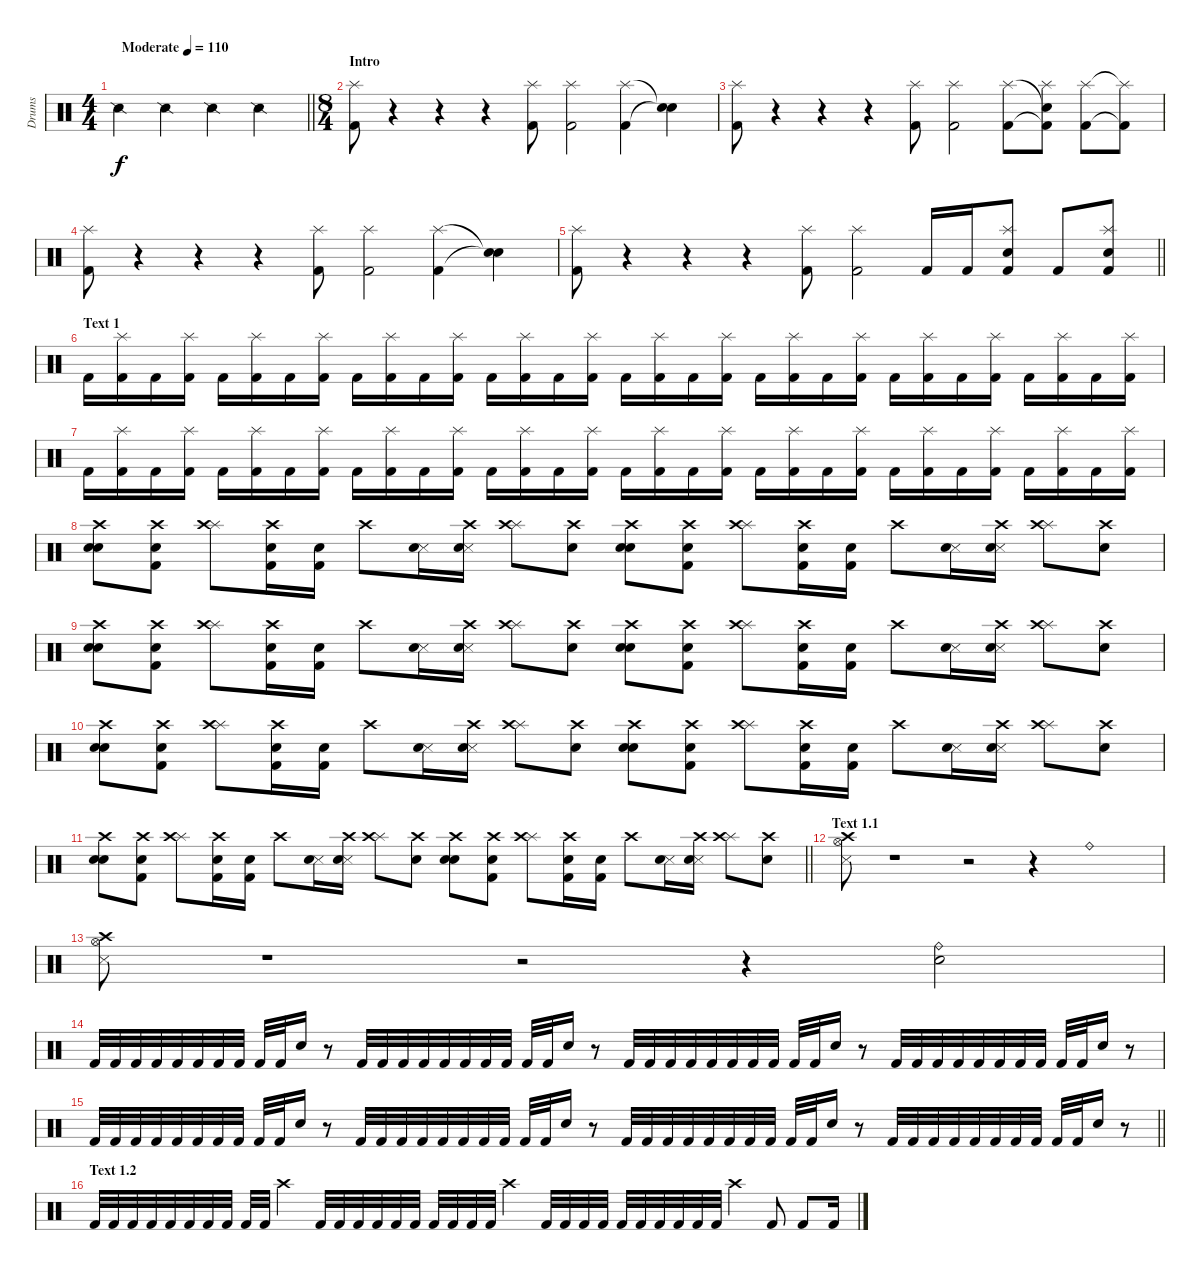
\track ("Drums" "Drums") {instrument percussion}
\staff {score}
\articulation defaults
\ts (4 4)
\tempo (110 "Moderate")
\clef neutral
\barLineRight lightlight
\ks c "Snare (side stick) 2".4{dy f} "Snare (side stick) 2".4 "Snare (side stick) 2".4 "Snare (side stick) 2".4
|
\ts (8 4)
\section ("" "Intro")
("Kick (hit) 2" "Splash (hit)").8 r.4 r.4 r.4 ("Kick (hit) 2" "Splash (hit)").8 ("Kick (hit) 2" "Splash (hit)").2 ("Kick (hit) 2" "Splash (hit)").4 ("Snare (hit)"{t} "Snare (hit)"{t}).4 |
("Kick (hit) 2" "Splash (hit)").8 r.4 r.4 r.4 ("Kick (hit) 2" "Splash (hit)").8 ("Kick (hit) 2" "Splash (hit)").2 ("Kick (hit) 2" "Splash (hit)").8 ("Kick (hit) 2"{t} "Snare (hit)"{t} "Splash (hit)").8 ("Kick (hit) 2" "Splash (hit)").8 ("Kick (hit) 2"{t} "Splash (hit)"{t}).8 |
("Kick (hit) 2" "Splash (hit)").8 r.4 r.4 r.4 ("Kick (hit) 2" "Splash (hit)").8 ("Kick (hit) 2" "Splash (hit)").2 ("Kick (hit) 2" "Splash (hit)").4 ("Snare (hit)"{t} "Snare (hit)"{t}).4 |
\barLineRight lightlight
("Kick (hit) 2" "Splash (hit)").8 r.4 r.4 r.4 ("Kick (hit) 2" "Splash (hit)").8 ("Kick (hit) 2" "Splash (hit)").2 "Kick (hit) 2".16 "Kick (hit) 2".16 ("Kick (hit) 2" "Snare (hit) 2" "Splash (hit)").8 "Kick (hit) 2".8 ("Kick (hit) 2" "Snare (hit) 2" "Splash (hit)").8 |
\section ("" "Text 1")
"Kick (hit) 2".16 ("Kick (hit) 2" "Splash (hit)").16 "Kick (hit) 2".16 ("Kick (hit) 2" "Splash (hit)").16 "Kick (hit) 2".16 ("Kick (hit) 2" "Splash (hit)").16 "Kick (hit) 2".16 ("Kick (hit) 2" "Splash (hit)").16 "Kick (hit) 2".16 ("Kick (hit) 2" "Splash (hit)").16 "Kick (hit) 2".16 ("Kick (hit) 2" "Splash (hit)").16 "Kick (hit) 2".16 ("Kick (hit) 2" "Splash (hit)").16 "Kick (hit) 2".16 ("Kick (hit) 2" "Splash (hit)").16 "Kick (hit) 2".16 ("Kick (hit) 2" "Splash (hit)").16 "Kick (hit) 2".16 ("Kick (hit) 2" "Splash (hit)").16 "Kick (hit) 2".16 ("Kick (hit) 2" "Splash (hit)").16 "Kick (hit) 2".16 ("Kick (hit) 2" "Splash (hit)").16 "Kick (hit) 2".16 ("Kick (hit) 2" "Splash (hit)").16 "Kick (hit) 2".16 ("Kick (hit) 2" "Splash (hit)").16 "Kick (hit) 2".16 ("Kick (hit) 2" "Splash (hit)").16 "Kick (hit) 2".16 ("Kick (hit) 2" "Splash (hit)").16 |
"Kick (hit) 2".16 ("Kick (hit) 2" "Splash (hit)").16 "Kick (hit) 2".16 ("Kick (hit) 2" "Splash (hit)").16 "Kick (hit) 2".16 ("Kick (hit) 2" "Splash (hit)").16 "Kick (hit) 2".16 ("Kick (hit) 2" "Splash (hit)").16 "Kick (hit) 2".16 ("Kick (hit) 2" "Splash (hit)").16 "Kick (hit) 2".16 ("Kick (hit) 2" "Splash (hit)").16 "Kick (hit) 2".16 ("Kick (hit) 2" "Splash (hit)").16 "Kick (hit) 2".16 ("Kick (hit) 2" "Splash (hit)").16 "Kick (hit) 2".16 ("Kick (hit) 2" "Splash (hit)").16 "Kick (hit) 2".16 ("Kick (hit) 2" "Splash (hit)").16 "Kick (hit) 2".16 ("Kick (hit) 2" "Splash (hit)").16 "Kick (hit) 2".16 ("Kick (hit) 2" "Splash (hit)").16 "Kick (hit) 2".16 ("Kick (hit) 2" "Splash (hit)").16 "Kick (hit) 2".16 ("Kick (hit) 2" "Splash (hit)").16 "Kick (hit) 2".16 ("Kick (hit) 2" "Splash (hit)").16 "Kick (hit) 2".16 ("Kick (hit) 2" "Splash (hit)").16 |
("Metronome (bell)" "Snare (hit) 2" "Crash high (hit)").8 ("Kick (hit) 2" "Snare (hit) 2" "Crash high (hit)").8 ("Splash (hit)" "Crash high (hit)").8 ("Kick (hit) 2" "Snare (hit) 2" "Crash high (hit)").16 ("Kick (hit) 2" "Snare (hit) 2").16 "Crash high (hit)".8 ("Metronome (hit)" "Snare (hit) 2").16 ("Metronome (hit)" "Snare (hit) 2" "Crash high (hit)").16 ("Splash (hit)" "Crash high (hit)").8 ("Snare (hit) 2" "Crash high (hit)").8 ("Metronome (bell)" "Snare (hit) 2" "Crash high (hit)").8 ("Kick (hit) 2" "Snare (hit) 2" "Crash high (hit)").8 ("Splash (hit)" "Crash high (hit)").8 ("Kick (hit) 2" "Snare (hit) 2" "Crash high (hit)").16 ("Kick (hit) 2" "Snare (hit) 2").16 "Crash high (hit)".8 ("Metronome (hit)" "Snare (hit) 2").16 ("Metronome (hit)" "Snare (hit) 2" "Crash high (hit)").16 ("Splash (hit)" "Crash high (hit)").8 ("Snare (hit) 2" "Crash high (hit)").8 |
("Metronome (bell)" "Snare (hit) 2" "Crash high (hit)").8 ("Kick (hit) 2" "Snare (hit) 2" "Crash high (hit)").8 ("Splash (hit)" "Crash high (hit)").8 ("Kick (hit) 2" "Snare (hit) 2" "Crash high (hit)").16 ("Kick (hit) 2" "Snare (hit) 2").16 "Crash high (hit)".8 ("Metronome (hit)" "Snare (hit) 2").16 ("Metronome (hit)" "Snare (hit) 2" "Crash high (hit)").16 ("Splash (hit)" "Crash high (hit)").8 ("Snare (hit) 2" "Crash high (hit)").8 ("Metronome (bell)" "Snare (hit) 2" "Crash high (hit)").8 ("Kick (hit) 2" "Snare (hit) 2" "Crash high (hit)").8 ("Splash (hit)" "Crash high (hit)").8 ("Kick (hit) 2" "Snare (hit) 2" "Crash high (hit)").16 ("Kick (hit) 2" "Snare (hit) 2").16 "Crash high (hit)".8 ("Metronome (hit)" "Snare (hit) 2").16 ("Metronome (hit)" "Snare (hit) 2" "Crash high (hit)").16 ("Splash (hit)" "Crash high (hit)").8 ("Snare (hit) 2" "Crash high (hit)").8 |
("Metronome (bell)" "Snare (hit) 2" "Crash high (hit)").8 ("Kick (hit) 2" "Snare (hit) 2" "Crash high (hit)").8 ("Splash (hit)" "Crash high (hit)").8 ("Kick (hit) 2" "Snare (hit) 2" "Crash high (hit)").16 ("Kick (hit) 2" "Snare (hit) 2").16 "Crash high (hit)".8 ("Metronome (hit)" "Snare (hit) 2").16 ("Metronome (hit)" "Snare (hit) 2" "Crash high (hit)").16 ("Splash (hit)" "Crash high (hit)").8 ("Snare (hit) 2" "Crash high (hit)").8 ("Metronome (bell)" "Snare (hit) 2" "Crash high (hit)").8 ("Kick (hit) 2" "Snare (hit) 2" "Crash high (hit)").8 ("Splash (hit)" "Crash high (hit)").8 ("Kick (hit) 2" "Snare (hit) 2" "Crash high (hit)").16 ("Kick (hit) 2" "Snare (hit) 2").16 "Crash high (hit)".8 ("Metronome (hit)" "Snare (hit) 2").16 ("Metronome (hit)" "Snare (hit) 2" "Crash high (hit)").16 ("Splash (hit)" "Crash high (hit)").8 ("Snare (hit) 2" "Crash high (hit)").8 |
\barLineRight lightlight
("Metronome (bell)" "Snare (hit) 2" "Crash high (hit)").8 ("Kick (hit) 2" "Snare (hit) 2" "Crash high (hit)").8 ("Splash (hit)" "Crash high (hit)").8 ("Kick (hit) 2" "Snare (hit) 2" "Crash high (hit)").16 ("Kick (hit) 2" "Snare (hit) 2").16 "Crash high (hit)".8 ("Metronome (hit)" "Snare (hit) 2").16 ("Metronome (hit)" "Snare (hit) 2" "Crash high (hit)").16 ("Splash (hit)" "Crash high (hit)").8 ("Snare (hit) 2" "Crash high (hit)").8 ("Metronome (bell)" "Snare (hit) 2" "Crash high (hit)").8 ("Kick (hit) 2" "Snare (hit) 2" "Crash high (hit)").8 ("Splash (hit)" "Crash high (hit)").8 ("Kick (hit) 2" "Snare (hit) 2" "Crash high (hit)").16 ("Kick (hit) 2" "Snare (hit) 2").16 "Crash high (hit)".8 ("Metronome (hit)" "Snare (hit) 2").16 ("Metronome (hit)" "Snare (hit) 2" "Crash high (hit)").16 ("Splash (hit)" "Crash high (hit)").8 ("Snare (hit) 2" "Crash high (hit)").8 |
\section ("" "Text 1.1")
("Metronome (hit)" "Crash high (hit)" "Hi-Hat (open)").8 r.1 r.2 r.4 "Ride (bell)".1 |
("Metronome (hit)" "Crash high (hit)" "Hi-Hat (open)").8 r.1 r.2 r.4 ("Snare (hit) 2" "Ride (bell)").2 |
"Kick (hit) 2".32 "Kick (hit) 2".32 "Kick (hit) 2".32 "Kick (hit) 2".32 "Kick (hit) 2".32 "Kick (hit) 2".32 "Kick (hit) 2".32 "Kick (hit) 2".32 "Kick (hit) 2".32 "Kick (hit) 2".32 "Snare (hit) 2".16 r.8 "Kick (hit) 2".32 "Kick (hit) 2".32 "Kick (hit) 2".32 "Kick (hit) 2".32 "Kick (hit) 2".32 "Kick (hit) 2".32 "Kick (hit) 2".32 "Kick (hit) 2".32 "Kick (hit) 2".32 "Kick (hit) 2".32 "Snare (hit) 2".16 r.8 "Kick (hit) 2".32 "Kick (hit) 2".32 "Kick (hit) 2".32 "Kick (hit) 2".32 "Kick (hit) 2".32 "Kick (hit) 2".32 "Kick (hit) 2".32 "Kick (hit) 2".32 "Kick (hit) 2".32 "Kick (hit) 2".32 "Snare (hit) 2".16 r.8 "Kick (hit) 2".32 "Kick (hit) 2".32 "Kick (hit) 2".32 "Kick (hit) 2".32 "Kick (hit) 2".32 "Kick (hit) 2".32 "Kick (hit) 2".32 "Kick (hit) 2".32 "Kick (hit) 2".32 "Kick (hit) 2".32 "Snare (hit) 2".16 r.8 |
\barLineRight lightlight "Kick (hit) 2".32 "Kick (hit) 2".32 "Kick (hit) 2".32 "Kick (hit) 2".32 "Kick (hit) 2".32 "Kick (hit) 2".32 "Kick (hit) 2".32 "Kick (hit) 2".32 "Kick (hit) 2".32 "Kick (hit) 2".32 "Snare (hit) 2".16
r.8 "Kick (hit) 2".32 "Kick (hit) 2".32 "Kick (hit) 2".32 "Kick (hit) 2".32 "Kick (hit) 2".32 "Kick (hit) 2".32 "Kick (hit) 2".32 "Kick (hit) 2".32 "Kick (hit) 2".32 "Kick (hit) 2".32 "Snare (hit) 2".16 r.8 "Kick (hit) 2".32 "Kick (hit) 2".32 "Kick (hit) 2".32 "Kick (hit) 2".32 "Kick (hit) 2".32 "Kick (hit) 2".32 "Kick (hit) 2".32 "Kick (hit) 2".32 "Kick (hit) 2".32 "Kick (hit) 2".32 "Snare (hit) 2".16 r.8 "Kick (hit) 2".32 "Kick (hit) 2".32 "Kick (hit) 2".32 "Kick (hit) 2".32 "Kick (hit) 2".32 "Kick (hit) 2".32 "Kick (hit) 2".32 "Kick (hit) 2".32 "Kick (hit) 2".32 "Kick (hit) 2".32 "Snare (hit) 2".16 r.8 |
\section ("" "Text 1.2")
"Kick (hit) 2".32 "Kick (hit) 2".32 "Kick (hit) 2".32 "Kick (hit) 2".32 "Kick (hit) 2".32 "Kick (hit) 2".32 "Kick (hit) 2".32 "Kick (hit) 2".32 "Kick (hit) 2".32 "Kick (hit) 2".32 "Crash high (hit)".4 "Kick (hit) 2".32 "Kick (hit) 2".32 "Kick (hit) 2".32 "Kick (hit) 2".32 "Kick (hit) 2".32 "Kick (hit) 2".32 "Kick (hit) 2".32 "Kick (hit) 2".32 "Kick (hit) 2".32 "Kick (hit) 2".32 "Crash high (hit)".4 "Kick (hit) 2".32 "Kick (hit) 2".32 "Kick (hit) 2".32 "Kick (hit) 2".32 "Kick (hit) 2".32 "Kick (hit) 2".32 "Kick (hit) 2".32 "Kick (hit) 2".32 "Kick (hit) 2".32 "Kick (hit) 2".32 "Crash high (hit)".4 "Kick (hit) 2".8 "Kick (hit) 2".8 "Kick (hit) 2".16
